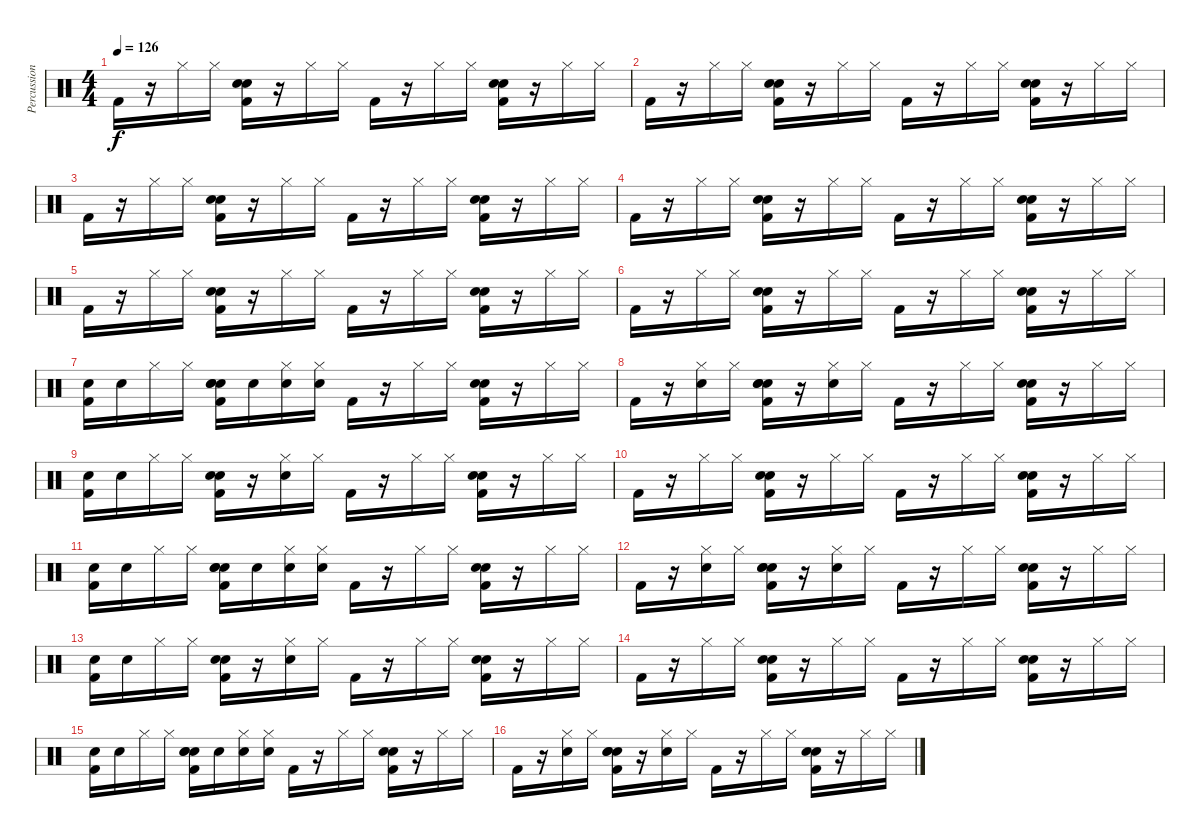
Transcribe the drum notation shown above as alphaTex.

\track ("Percussion" "Percussion") {instrument percussion}
\staff {score}
\articulation defaults
\ts (4 4)
\tempo 126
\clef neutral
\ks c "Kick (hit) 2".16{dy f}
r.16 "Hi-Hat (closed)".16 "Hi-Hat (closed)".16 ("Hand Clap (hit)" "Electric Snare (hit)" "Kick (hit) 2").16 r.16 "Hi-Hat (closed)".16 "Hi-Hat (closed)".16 "Kick (hit) 2".16 r.16 "Hi-Hat (closed)".16 "Hi-Hat (closed)".16 ("Hand Clap (hit)" "Electric Snare (hit)" "Kick (hit) 2").16 r.16 "Hi-Hat (closed)".16 "Hi-Hat (closed)".16 |
"Kick (hit) 2".16 r.16 "Hi-Hat (closed)".16 "Hi-Hat (closed)".16 ("Hand Clap (hit)" "Electric Snare (hit)" "Kick (hit) 2").16 r.16 "Hi-Hat (closed)".16 "Hi-Hat (closed)".16 "Kick (hit) 2".16 r.16 "Hi-Hat (closed)".16 "Hi-Hat (closed)".16 ("Hand Clap (hit)" "Electric Snare (hit)" "Kick (hit) 2").16 r.16 "Hi-Hat (closed)".16 "Hi-Hat (closed)".16 |
"Kick (hit) 2".16 r.16 "Hi-Hat (closed)".16 "Hi-Hat (closed)".16 ("Hand Clap (hit)" "Electric Snare (hit)" "Kick (hit) 2").16 r.16 "Hi-Hat (closed)".16 "Hi-Hat (closed)".16 "Kick (hit) 2".16 r.16 "Hi-Hat (closed)".16 "Hi-Hat (closed)".16 ("Hand Clap (hit)" "Electric Snare (hit)" "Kick (hit) 2").16 r.16 "Hi-Hat (closed)".16 "Hi-Hat (closed)".16 |
"Kick (hit) 2".16 r.16 "Hi-Hat (closed)".16 "Hi-Hat (closed)".16 ("Hand Clap (hit)" "Electric Snare (hit)" "Kick (hit) 2").16 r.16 "Hi-Hat (closed)".16 "Hi-Hat (closed)".16 "Kick (hit) 2".16 r.16 "Hi-Hat (closed)".16 "Hi-Hat (closed)".16 ("Hand Clap (hit)" "Electric Snare (hit)" "Kick (hit) 2").16 r.16 "Hi-Hat (closed)".16 "Hi-Hat (closed)".16 |
"Kick (hit) 2".16 r.16 "Hi-Hat (closed)".16 "Hi-Hat (closed)".16 ("Hand Clap (hit)" "Electric Snare (hit)" "Kick (hit) 2").16 r.16 "Hi-Hat (closed)".16 "Hi-Hat (closed)".16 "Kick (hit) 2".16 r.16 "Hi-Hat (closed)".16 "Hi-Hat (closed)".16 ("Hand Clap (hit)" "Electric Snare (hit)" "Kick (hit) 2").16 r.16 "Hi-Hat (closed)".16 "Hi-Hat (closed)".16 |
"Kick (hit) 2".16 r.16 "Hi-Hat (closed)".16 "Hi-Hat (closed)".16 ("Hand Clap (hit)" "Electric Snare (hit)" "Kick (hit) 2").16 r.16 "Hi-Hat (closed)".16 "Hi-Hat (closed)".16 "Kick (hit) 2".16 r.16 "Hi-Hat (closed)".16 "Hi-Hat (closed)".16 ("Hand Clap (hit)" "Electric Snare (hit)" "Kick (hit) 2").16 r.16 "Hi-Hat (closed)".16 "Hi-Hat (closed)".16 |
("Snare (hit) 2" "Kick (hit) 2").16 "Snare (hit) 2".16 "Hi-Hat (closed)".16 "Hi-Hat (closed)".16 ("Snare (hit) 2" "Hand Clap (hit)" "Electric Snare (hit)" "Kick (hit) 2").16 "Snare (hit) 2".16 ("Hi-Hat (closed)" "Snare (hit) 2").16 ("Hi-Hat (closed)" "Snare (hit) 2").16 "Kick (hit) 2".16 r.16 "Hi-Hat (closed)".16 "Hi-Hat (closed)".16 ("Hand Clap (hit)" "Electric Snare (hit)" "Kick (hit) 2").16 r.16 "Hi-Hat (closed)".16 "Hi-Hat (closed)".16 |
"Kick (hit) 2".16 r.16 ("Hi-Hat (closed)" "Snare (hit) 2").16 "Hi-Hat (closed)".16 ("Snare (hit) 2" "Hand Clap (hit)" "Electric Snare (hit)" "Kick (hit) 2").16 r.16 ("Hi-Hat (closed)" "Snare (hit) 2").16 "Hi-Hat (closed)".16 "Kick (hit) 2".16 r.16 "Hi-Hat (closed)".16 "Hi-Hat (closed)".16 ("Hand Clap (hit)" "Electric Snare (hit)" "Kick (hit) 2").16 r.16 "Hi-Hat (closed)".16 "Hi-Hat (closed)".16 |
("Snare (hit) 2" "Kick (hit) 2").16 "Snare (hit) 2".16 "Hi-Hat (closed)".16 "Hi-Hat (closed)".16 ("Hand Clap (hit)" "Electric Snare (hit)" "Kick (hit) 2").16 r.16 ("Hi-Hat (closed)" "Snare (hit) 2").16 "Hi-Hat (closed)".16 "Kick (hit) 2".16 r.16 "Hi-Hat (closed)".16 "Hi-Hat (closed)".16 ("Hand Clap (hit)" "Electric Snare (hit)" "Kick (hit) 2").16 r.16 "Hi-Hat (closed)".16 "Hi-Hat (closed)".16 |
"Kick (hit) 2".16 r.16 "Hi-Hat (closed)".16 "Hi-Hat (closed)".16 ("Hand Clap (hit)" "Electric Snare (hit)" "Kick (hit) 2").16 r.16 "Hi-Hat (closed)".16 "Hi-Hat (closed)".16 "Kick (hit) 2".16 r.16 "Hi-Hat (closed)".16 "Hi-Hat (closed)".16 ("Hand Clap (hit)" "Electric Snare (hit)" "Kick (hit) 2").16 r.16 "Hi-Hat (closed)".16 "Hi-Hat (closed)".16 |
("Snare (hit) 2" "Kick (hit) 2").16 "Snare (hit) 2".16 "Hi-Hat (closed)".16 "Hi-Hat (closed)".16 ("Snare (hit) 2" "Hand Clap (hit)" "Electric Snare (hit)" "Kick (hit) 2").16 "Snare (hit) 2".16 ("Hi-Hat (closed)" "Snare (hit) 2").16 ("Hi-Hat (closed)" "Snare (hit) 2").16 "Kick (hit) 2".16 r.16 "Hi-Hat (closed)".16 "Hi-Hat (closed)".16 ("Hand Clap (hit)" "Electric Snare (hit)" "Kick (hit) 2").16 r.16 "Hi-Hat (closed)".16 "Hi-Hat (closed)".16 |
"Kick (hit) 2".16 r.16 ("Hi-Hat (closed)" "Snare (hit) 2").16 "Hi-Hat (closed)".16 ("Snare (hit) 2" "Hand Clap (hit)" "Electric Snare (hit)" "Kick (hit) 2").16 r.16 ("Hi-Hat (closed)" "Snare (hit) 2").16 "Hi-Hat (closed)".16 "Kick (hit) 2".16 r.16 "Hi-Hat (closed)".16 "Hi-Hat (closed)".16 ("Hand Clap (hit)" "Electric Snare (hit)" "Kick (hit) 2").16 r.16 "Hi-Hat (closed)".16 "Hi-Hat (closed)".16 |
("Snare (hit) 2" "Kick (hit) 2").16 "Snare (hit) 2".16 "Hi-Hat (closed)".16 "Hi-Hat (closed)".16 ("Hand Clap (hit)" "Electric Snare (hit)" "Kick (hit) 2").16 r.16 ("Hi-Hat (closed)" "Snare (hit) 2").16 "Hi-Hat (closed)".16 "Kick (hit) 2".16 r.16 "Hi-Hat (closed)".16 "Hi-Hat (closed)".16 ("Hand Clap (hit)" "Electric Snare (hit)" "Kick (hit) 2").16 r.16 "Hi-Hat (closed)".16 "Hi-Hat (closed)".16 |
"Kick (hit) 2".16 r.16 "Hi-Hat (closed)".16 "Hi-Hat (closed)".16 ("Hand Clap (hit)" "Electric Snare (hit)" "Kick (hit) 2").16 r.16 "Hi-Hat (closed)".16 "Hi-Hat (closed)".16 "Kick (hit) 2".16 r.16 "Hi-Hat (closed)".16 "Hi-Hat (closed)".16 ("Hand Clap (hit)" "Electric Snare (hit)" "Kick (hit) 2").16 r.16 "Hi-Hat (closed)".16 "Hi-Hat (closed)".16 |
("Snare (hit) 2" "Kick (hit) 2").16 "Snare (hit) 2".16 "Hi-Hat (closed)".16 "Hi-Hat (closed)".16 ("Snare (hit) 2" "Hand Clap (hit)" "Electric Snare (hit)" "Kick (hit) 2").16 "Snare (hit) 2".16 ("Hi-Hat (closed)" "Snare (hit) 2").16 ("Hi-Hat (closed)" "Snare (hit) 2").16 "Kick (hit) 2".16 r.16 "Hi-Hat (closed)".16 "Hi-Hat (closed)".16 ("Hand Clap (hit)" "Electric Snare (hit)" "Kick (hit) 2").16 r.16 "Hi-Hat (closed)".16 "Hi-Hat (closed)".16 |
"Kick (hit) 2".16 r.16 ("Hi-Hat (closed)" "Snare (hit) 2").16 "Hi-Hat (closed)".16 ("Snare (hit) 2" "Hand Clap (hit)" "Electric Snare (hit)" "Kick (hit) 2").16 r.16 ("Hi-Hat (closed)" "Snare (hit) 2").16 "Hi-Hat (closed)".16 "Kick (hit) 2".16 r.16 "Hi-Hat (closed)".16 "Hi-Hat (closed)".16 ("Hand Clap (hit)" "Electric Snare (hit)" "Kick (hit) 2").16 r.16 "Hi-Hat (closed)".16 "Hi-Hat (closed)".16
